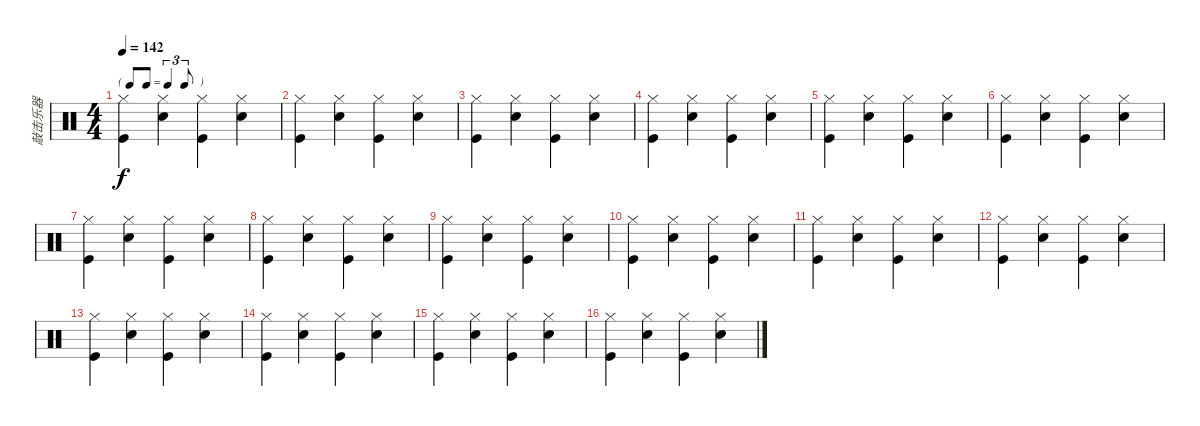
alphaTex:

\track ("敲击乐器" "敲击乐器") {instrument percussion}
\staff {score}
\articulation defaults
\ts (4 4)
\tf triplet8th
\tempo 142
\clef neutral
\ks c
("Hi-Hat (closed)" "Kick (hit)").4{dy f} ("Hi-Hat (closed)" "Electric Snare (hit)").4 ("Hi-Hat (closed)" "Kick (hit)").4 ("Hi-Hat (closed)" "Electric Snare (hit)").4 |
("Hi-Hat (closed)" "Kick (hit)").4 ("Hi-Hat (closed)" "Electric Snare (hit)").4 ("Hi-Hat (closed)" "Kick (hit)").4 ("Hi-Hat (closed)" "Electric Snare (hit)").4 |
("Hi-Hat (closed)" "Kick (hit)").4 ("Hi-Hat (closed)" "Electric Snare (hit)").4 ("Hi-Hat (closed)" "Kick (hit)").4 ("Hi-Hat (closed)" "Electric Snare (hit)").4 |
("Hi-Hat (closed)" "Kick (hit)").4 ("Hi-Hat (closed)" "Electric Snare (hit)").4 ("Hi-Hat (closed)" "Kick (hit)").4 ("Hi-Hat (closed)" "Electric Snare (hit)").4 |
("Hi-Hat (closed)" "Kick (hit)").4 ("Hi-Hat (closed)" "Electric Snare (hit)").4 ("Hi-Hat (closed)" "Kick (hit)").4 ("Hi-Hat (closed)" "Electric Snare (hit)").4 |
("Hi-Hat (closed)" "Kick (hit)").4 ("Hi-Hat (closed)" "Electric Snare (hit)").4 ("Hi-Hat (closed)" "Kick (hit)").4 ("Hi-Hat (closed)" "Electric Snare (hit)").4 |
("Hi-Hat (closed)" "Kick (hit)").4 ("Hi-Hat (closed)" "Electric Snare (hit)").4 ("Hi-Hat (closed)" "Kick (hit)").4 ("Hi-Hat (closed)" "Electric Snare (hit)").4 |
("Hi-Hat (closed)" "Kick (hit)").4 ("Hi-Hat (closed)" "Electric Snare (hit)").4 ("Hi-Hat (closed)" "Kick (hit)").4 ("Hi-Hat (closed)" "Electric Snare (hit)").4 |
("Hi-Hat (closed)" "Kick (hit)").4 ("Hi-Hat (closed)" "Electric Snare (hit)").4 ("Hi-Hat (closed)" "Kick (hit)").4 ("Hi-Hat (closed)" "Electric Snare (hit)").4 |
("Hi-Hat (closed)" "Kick (hit)").4 ("Hi-Hat (closed)" "Electric Snare (hit)").4 ("Hi-Hat (closed)" "Kick (hit)").4 ("Hi-Hat (closed)" "Electric Snare (hit)").4 |
("Hi-Hat (closed)" "Kick (hit)").4 ("Hi-Hat (closed)" "Electric Snare (hit)").4 ("Hi-Hat (closed)" "Kick (hit)").4 ("Hi-Hat (closed)" "Electric Snare (hit)").4 |
("Hi-Hat (closed)" "Kick (hit)").4 ("Hi-Hat (closed)" "Electric Snare (hit)").4 ("Hi-Hat (closed)" "Kick (hit)").4 ("Hi-Hat (closed)" "Electric Snare (hit)").4 |
("Hi-Hat (closed)" "Kick (hit)").4 ("Hi-Hat (closed)" "Electric Snare (hit)").4 ("Hi-Hat (closed)" "Kick (hit)").4 ("Hi-Hat (closed)" "Electric Snare (hit)").4 |
("Hi-Hat (closed)" "Kick (hit)").4 ("Hi-Hat (closed)" "Electric Snare (hit)").4 ("Hi-Hat (closed)" "Kick (hit)").4 ("Hi-Hat (closed)" "Electric Snare (hit)").4 |
("Hi-Hat (closed)" "Kick (hit)").4 ("Hi-Hat (closed)" "Electric Snare (hit)").4 ("Hi-Hat (closed)" "Kick (hit)").4 ("Hi-Hat (closed)" "Electric Snare (hit)").4 |
("Hi-Hat (closed)" "Kick (hit)").4 ("Hi-Hat (closed)" "Electric Snare (hit)").4 ("Hi-Hat (closed)" "Kick (hit)").4 ("Hi-Hat (closed)" "Electric Snare (hit)").4
